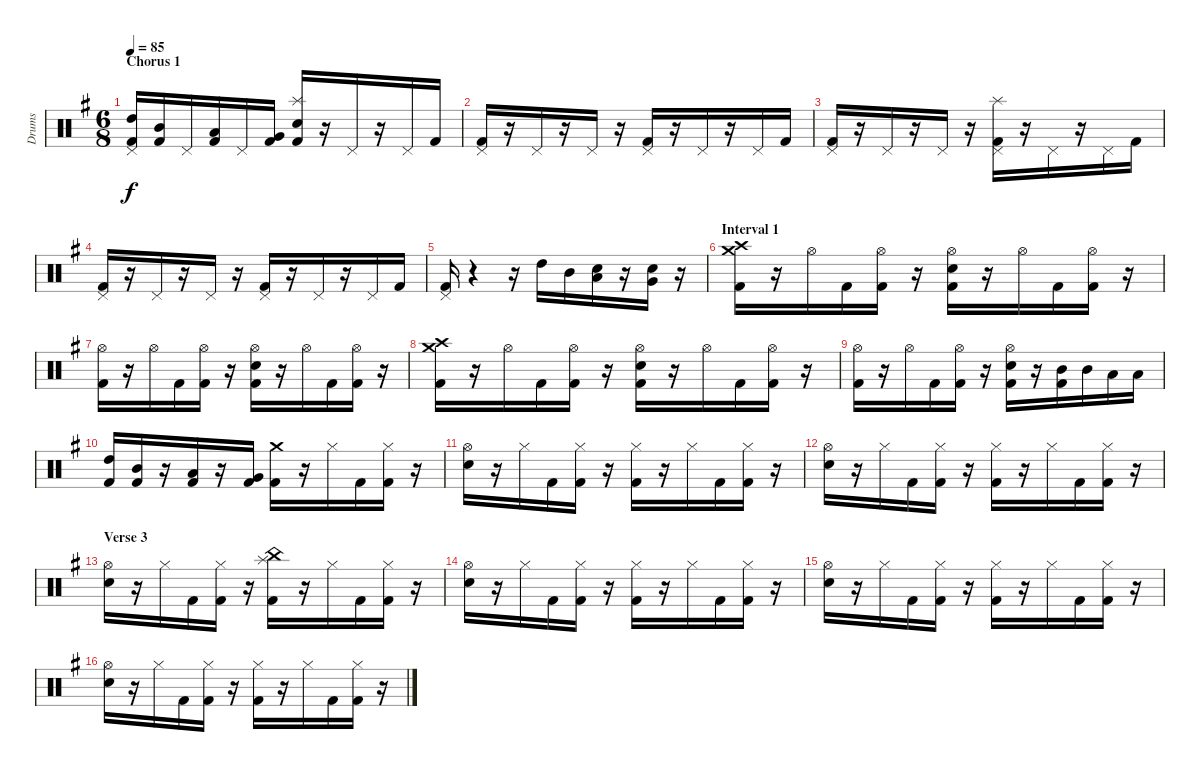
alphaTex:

\track ("Drums" "Drums") {instrument percussion}
\staff {score}
\articulation defaults
\ts (6 8)
\section ("" "Chorus 1")
\tempo 85
\clef neutral
\ks eminor
("High Tom (hit)" "Pedal Hi-Hat (hit)" "Kick (hit) 2").16{dy f} ("Mid Tom (hit)" "Kick (hit) 2").16 "Pedal Hi-Hat (hit)".16 ("Low Tom (hit)" "Kick (hit) 2").16 "Pedal Hi-Hat (hit)".16 ("Very Low Tom (hit)" "Kick (hit) 2").16 ("Splash (hit)" "Electric Snare (hit)" "Kick (hit) 2").16 r.16 "Pedal Hi-Hat (hit)".16 r.16 "Pedal Hi-Hat (hit)".16 "Kick (hit) 2".16 |
("Pedal Hi-Hat (hit)" "Kick (hit) 2").16 r.16 "Pedal Hi-Hat (hit)".16 r.16 "Pedal Hi-Hat (hit)".16 r.16 ("Pedal Hi-Hat (hit)" "Kick (hit) 2").16 r.16 "Pedal Hi-Hat (hit)".16 r.16 "Pedal Hi-Hat (hit)".16 "Kick (hit) 2".16 |
("Pedal Hi-Hat (hit)" "Kick (hit) 2").16 r.16 "Pedal Hi-Hat (hit)".16 r.16 "Pedal Hi-Hat (hit)".16 r.16 ("Splash (hit)" "Pedal Hi-Hat (hit)" "Kick (hit) 2").16 r.16 "Pedal Hi-Hat (hit)".16 r.16 "Pedal Hi-Hat (hit)".16 "Kick (hit) 2".16 |
("Pedal Hi-Hat (hit)" "Kick (hit) 2").16 r.16 "Pedal Hi-Hat (hit)".16 r.16 "Pedal Hi-Hat (hit)".16 r.16 ("Pedal Hi-Hat (hit)" "Kick (hit) 2").16 r.16 "Pedal Hi-Hat (hit)".16 r.16 "Pedal Hi-Hat (hit)".16 "Kick (hit) 2".16 |
("Pedal Hi-Hat (hit)" "Kick (hit) 2").16 r.4 r.16 "High Tom (hit)".16 "Mid Tom (hit)".16 ("Electric Snare (hit)" "Low Tom (hit)").16 r.16 ("Electric Snare (hit)" "Very Low Tom (hit)").16 r.16 |
\section ("" "Interval 1")
("Crash medium (hit)" "Crash high (hit)" "Kick (hit) 2").16 r.16 "Hi-Hat (open)".16 "Kick (hit) 2".16 ("Hi-Hat (open)" "Kick (hit) 2").16 r.16 ("Hi-Hat (open)" "Electric Snare (hit)" "Kick (hit) 2").16 r.16 "Hi-Hat (open)".16 "Kick (hit) 2".16 ("Hi-Hat (open)" "Kick (hit) 2").16 r.16 |
("Hi-Hat (open)" "Kick (hit) 2").16 r.16 "Hi-Hat (open)".16 "Kick (hit) 2".16 ("Hi-Hat (open)" "Kick (hit) 2").16 r.16 ("Hi-Hat (open)" "Electric Snare (hit)" "Kick (hit) 2").16 r.16 "Hi-Hat (open)".16 "Kick (hit) 2".16 ("Hi-Hat (open)" "Kick (hit) 2").16 r.16 |
("Crash medium (hit)" "Crash high (hit)" "Kick (hit) 2").16 r.16 "Hi-Hat (open)".16 "Kick (hit) 2".16 ("Hi-Hat (open)" "Kick (hit) 2").16 r.16 ("Hi-Hat (open)" "Electric Snare (hit)" "Kick (hit) 2").16 r.16 "Hi-Hat (open)".16 "Kick (hit) 2".16 ("Hi-Hat (open)" "Kick (hit) 2").16 r.16 |
("Hi-Hat (open)" "Kick (hit) 2").16 r.16 "Hi-Hat (open)".16 "Kick (hit) 2".16 ("Hi-Hat (open)" "Kick (hit) 2").16 r.16 ("Hi-Hat (open)" "Electric Snare (hit)" "Kick (hit) 2").16 r.16 ("Mid Tom (hit)" "Kick (hit) 2").16 "Mid Tom (hit)".16 "Low Tom (hit)".16 "Low Tom (hit)".16 |
("High Tom (hit)" "Kick (hit) 2").16 ("Mid Tom (hit)" "Kick (hit) 2").16 r.16 ("Low Tom (hit)" "Kick (hit) 2").16 r.16 ("Very Low Tom (hit)" "Kick (hit) 2").16 ("Crash medium (hit)" "Kick (hit) 2").16 r.16 "Hi-Hat (closed)".16 "Kick (hit) 2".16 ("Hi-Hat (closed)" "Kick (hit) 2").16 r.16 |
("Hi-Hat (open)" "Electric Snare (hit)").16 r.16 "Hi-Hat (closed)".16 "Kick (hit) 2".16 ("Hi-Hat (closed)" "Kick (hit) 2").16 r.16 ("Hi-Hat (closed)" "Kick (hit) 2").16 r.16 "Hi-Hat (closed)".16 "Kick (hit) 2".16 ("Hi-Hat (closed)" "Kick (hit) 2").16 r.16 |
("Hi-Hat (open)" "Electric Snare (hit)").16 r.16 "Hi-Hat (closed)".16 "Kick (hit) 2".16 ("Hi-Hat (closed)" "Kick (hit) 2").16 r.16 ("Hi-Hat (closed)" "Kick (hit) 2").16 r.16 "Hi-Hat (closed)".16 "Kick (hit) 2".16 ("Hi-Hat (closed)" "Kick (hit) 2").16 r.16 |
\section ("" "Verse 3")
("Hi-Hat (open)" "Electric Snare (hit)").16 r.16 "Hi-Hat (closed)".16 "Kick (hit) 2".16 ("Hi-Hat (closed)" "Kick (hit) 2").16 r.16 ("Splash (hit)" "China (hit)" "Kick (hit) 2").16 r.16 "Hi-Hat (closed)".16 "Kick (hit) 2".16 ("Hi-Hat (closed)" "Kick (hit) 2").16 r.16 |
("Hi-Hat (open)" "Electric Snare (hit)").16 r.16 "Hi-Hat (closed)".16 "Kick (hit) 2".16 ("Hi-Hat (closed)" "Kick (hit) 2").16 r.16 ("Hi-Hat (closed)" "Kick (hit) 2").16 r.16 "Hi-Hat (closed)".16 "Kick (hit) 2".16 ("Hi-Hat (closed)" "Kick (hit) 2").16 r.16 |
("Hi-Hat (open)" "Electric Snare (hit)").16 r.16 "Hi-Hat (closed)".16 "Kick (hit) 2".16 ("Hi-Hat (closed)" "Kick (hit) 2").16 r.16 ("Hi-Hat (closed)" "Kick (hit) 2").16 r.16 "Hi-Hat (closed)".16 "Kick (hit) 2".16 ("Hi-Hat (closed)" "Kick (hit) 2").16 r.16 |
("Hi-Hat (open)" "Electric Snare (hit)").16 r.16 "Hi-Hat (closed)".16 "Kick (hit) 2".16 ("Hi-Hat (closed)" "Kick (hit) 2").16 r.16 ("Hi-Hat (closed)" "Kick (hit) 2").16 r.16 "Hi-Hat (closed)".16 "Kick (hit) 2".16 ("Hi-Hat (closed)" "Kick (hit) 2").16 r.16
